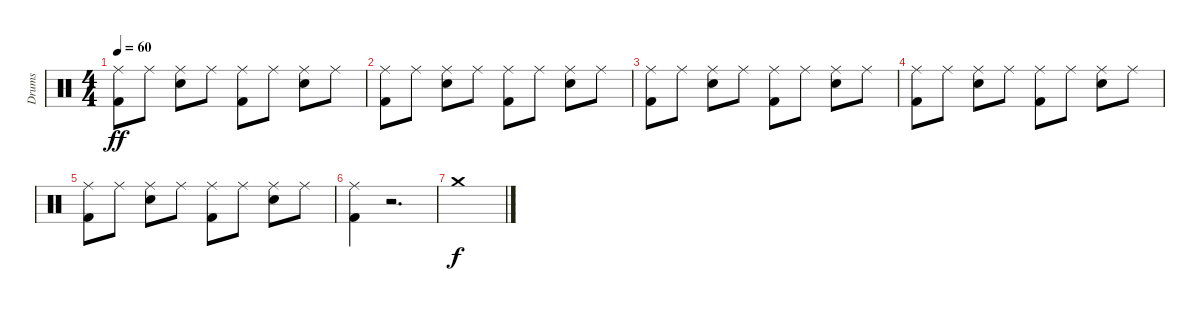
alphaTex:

\track ("Drums" "Drums") {instrument percussion}
\staff {score}
\articulation defaults
\ts (4 4)
\tempo 60
\clef neutral
\ks c
("Kick (hit) 2" "Ride (middle)").8{dy ff} "Ride (middle)".8 ("Snare (hit) 2" "Ride (middle)").8 "Ride (middle)".8 ("Kick (hit) 2" "Ride (middle)").8 "Ride (middle)".8 ("Snare (hit) 2" "Ride (middle)").8 "Ride (middle)".8 |
("Kick (hit) 2" "Ride (middle)").8 "Ride (middle)".8 ("Snare (hit) 2" "Ride (middle)").8 "Ride (middle)".8 ("Kick (hit) 2" "Ride (middle)").8 "Ride (middle)".8 ("Snare (hit) 2" "Ride (middle)").8 "Ride (middle)".8 |
("Kick (hit) 2" "Ride (middle)").8 "Ride (middle)".8 ("Snare (hit) 2" "Ride (middle)").8 "Ride (middle)".8 ("Kick (hit) 2" "Ride (middle)").8 "Ride (middle)".8 ("Snare (hit) 2" "Ride (middle)").8 "Ride (middle)".8 |
("Kick (hit) 2" "Ride (middle)").8 "Ride (middle)".8 ("Snare (hit) 2" "Ride (middle)").8 "Ride (middle)".8 ("Kick (hit) 2" "Ride (middle)").8 "Ride (middle)".8 ("Snare (hit) 2" "Ride (middle)").8 "Ride (middle)".8 |
("Kick (hit) 2" "Ride (middle)").8 "Ride (middle)".8 ("Snare (hit) 2" "Ride (middle)").8 "Ride (middle)".8 ("Kick (hit) 2" "Ride (middle)").8 "Ride (middle)".8 ("Snare (hit) 2" "Ride (middle)").8 "Ride (middle)".8 |
("Kick (hit) 2" "Ride (middle)").4 r.2{d} |
"Crash medium (hit)".1{dy f}
